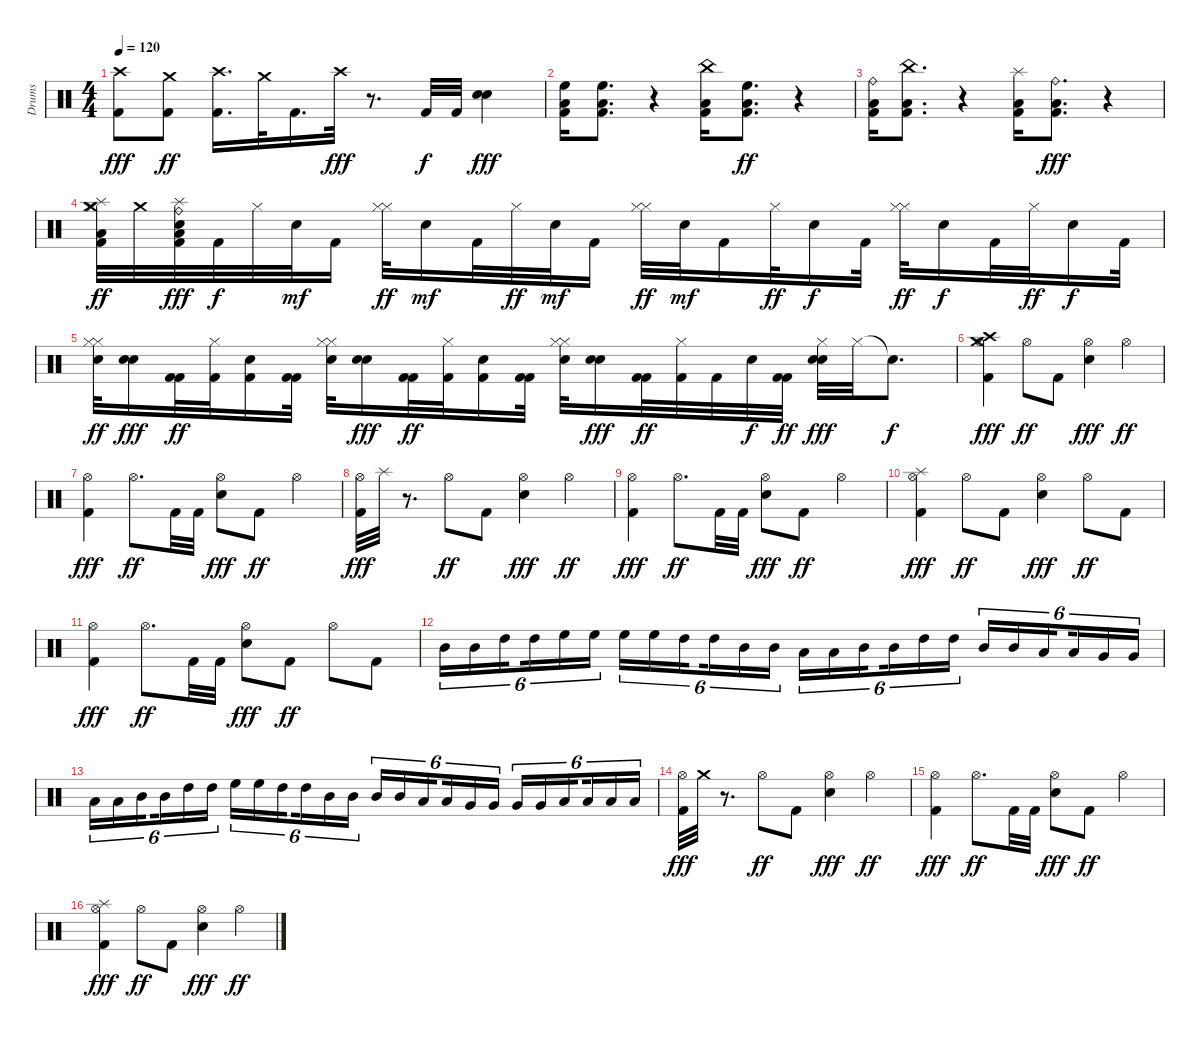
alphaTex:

\track ("Drums" "Drums") {instrument percussion}
\staff {score}
\articulation defaults
\ts (4 4)
\tempo 120
\clef neutral
\ks c
("Crash high (hit)" "Kick (hit) 2").8{dy fff} ("Crash medium (hit)" "Kick (hit) 2").8{dy ff} ("Crash high (hit)" "Kick (hit) 2").16{d} "Crash medium (hit)".32 "Kick (hit) 2".16{d} "Crash high (hit)".32{dy fff} r.8{d} "Kick (hit) 2".32{dy f} "Kick (hit) 2".32 ("Snare (hit) 2" "Electric Snare (hit)").4{dy fff volume 0} |
("Kick (hit) 2" "Low Floor Tom (hit)" "High Floor Tom (hit)").16{volume 16} ("Low Floor Tom (hit)" "Kick (hit) 2" "High Floor Tom (hit)").8{d} r.4 ("Kick (hit) 2" "Low Floor Tom (hit)" "China (hit)").16 ("Kick (hit) 2" "Low Floor Tom (hit)" "High Floor Tom (hit)").8{d dy ff} r.4 |
("Low Floor Tom (hit)" "Kick (hit) 2" "Ride (bell)").16 ("Kick (hit) 2" "Low Floor Tom (hit)" "China (hit)").8{d} r.4 ("Kick (hit) 2" "Low Floor Tom (hit)" "Splash (hit)").16 ("Ride (bell)" "Kick (hit) 2" "Low Floor Tom (hit)").8{d dy fff} r.4 |
("Crash medium (hit)" "Hi-Hat (closed)" "Kick (hit) 2" "Low Floor Tom (hit)" "Splash (hit)" "Hi-Hat (closed)").32{dy ff} "Crash medium (hit)".32 ("Hand Clap (hit)" "Kick (hit) 2" "Low Floor Tom (hit)" "Splash (hit)" "Ride (bell)").32{dy fff} "Kick (hit) 2".32{dy f} "Hi-Hat (closed)".32 "Hand Clap (hit)".32{dy mf volume 16} "Kick (hit) 2".16{volume 14} ("Hi-Hat (closed)" "Hi-Hat (closed)").32{dy ff volume 14} "Hand Clap (hit)".16{dy mf} "Kick (hit) 2".32 "Hi-Hat (closed)".32{dy ff} "Hand Clap (hit)".32{dy mf} "Kick (hit) 2".16 ("Hi-Hat (closed)" "Hi-Hat (closed)").32{dy ff} "Hand Clap (hit)".32{dy mf} "Kick (hit) 2".16 "Hi-Hat (closed)".32{dy ff} "Hand Clap (hit)".16{dy f} "Kick (hit) 2".32 ("Hi-Hat (closed)" "Hi-Hat (closed)").32{dy ff} "Hand Clap (hit)".16{dy f} "Kick (hit) 2".32 "Hi-Hat (closed)".32{dy ff} "Hand Clap (hit)".16{dy f} "Kick (hit) 2".32 |
("Hi-Hat (closed)" "Electric Snare (hit)" "Hi-Hat (closed)").32{dy ff} ("Hand Clap (hit)" "Electric Snare (hit)").16{dy fff volume 14} ("Kick (hit) 2" "Kick (hit) 2").32{dy ff} ("Kick (hit) 2" "Hi-Hat (closed)").32{volume 14} ("Hand Clap (hit)" "Kick (hit) 2").16{volume 14} ("Kick (hit) 2" "Kick (hit) 2").32{volume 14} ("Hi-Hat (closed)" "Electric Snare (hit)" "Hi-Hat (closed)").32{volume 15} ("Hand Clap (hit)" "Electric Snare (hit)").16{dy fff} ("Kick (hit) 2" "Kick (hit) 2").32{dy ff volume 15} ("Hi-Hat (closed)" "Kick (hit) 2").32{volume 15} ("Hand Clap (hit)" "Kick (hit) 2").16 ("Kick (hit) 2" "Kick (hit) 2").32{volume 15} ("Hi-Hat (closed)" "Electric Snare (hit)" "Hi-Hat (closed)").32 ("Electric Snare (hit)" "Hand Clap (hit)").16{dy fff volume 15} ("Kick (hit) 2" "Kick (hit) 2").32{dy ff} ("Kick (hit) 2" "Hi-Hat (closed)").32 "Kick (hit) 2".32{volume 16} "Hand Clap (hit)".32{dy f volume 16} ("Kick (hit) 2" "Kick (hit) 2").32{dy ff} ("Snare (hit) 2" "Hi-Hat (closed)" "Electric Snare (hit)").32{dy fff} "Hi-Hat (closed)".32{volume 16} "Snare (hit)"{t}.8{d dy f} |
("Crash high (hit)" "Hi-Hat (open)" "Kick (hit) 2" "Crash medium (hit)").4{dy fff} "Hi-Hat (open)".8{dy ff} "Kick (hit) 2".8 ("Hi-Hat (open)" "Snare (hit) 2").4{dy fff volume 16} "Hi-Hat (open)".4{dy ff} |
("Hi-Hat (open)" "Kick (hit) 2").4{dy fff} "Hi-Hat (open)".8{d dy ff} "Kick (hit) 2".32 "Kick (hit) 2".32 ("Hi-Hat (open)" "Snare (hit) 2").8{dy fff} "Kick (hit) 2".8{dy ff} "Hi-Hat (open)".4 |
("Hi-Hat (open)" "Kick (hit) 2").32{dy fff} "Splash (hit)".32 r.8{d} "Hi-Hat (open)".8{dy ff} "Kick (hit) 2".8 ("Hi-Hat (open)" "Snare (hit) 2").4{dy fff} "Hi-Hat (open)".4{dy ff} |
("Hi-Hat (open)" "Kick (hit) 2").4{dy fff} "Hi-Hat (open)".8{d dy ff} "Kick (hit) 2".32 "Kick (hit) 2".32 ("Hi-Hat (open)" "Snare (hit) 2").8{dy fff} "Kick (hit) 2".8{dy ff} "Hi-Hat (open)".4 |
("Splash (hit)" "Hi-Hat (open)" "Kick (hit) 2").4{dy fff} "Hi-Hat (open)".8{dy ff} "Kick (hit) 2".8 ("Hi-Hat (open)" "Snare (hit) 2").4{dy fff} "Hi-Hat (open)".8{dy ff} "Kick (hit) 2".8 |
("Hi-Hat (open)" "Kick (hit) 2").4{dy fff} "Hi-Hat (open)".8{d dy ff} "Kick (hit) 2".32 "Kick (hit) 2".32 ("Hi-Hat (open)" "Snare (hit) 2").8{dy fff} "Kick (hit) 2".8{dy ff} "Hi-Hat (open)".8 "Kick (hit) 2".8 |
"Mid Tom (hit)".16{tu (6 4)} "Mid Tom (hit)".16{tu (6 4)} "High Tom (hit)".16{tu (6 4) beam splitsecondary} "High Tom (hit)".16{tu (6 4)} "High Floor Tom (hit)".16{tu (6 4)} "High Floor Tom (hit)".16{tu (6 4)} "High Floor Tom (hit)".16{tu (6 4)} "High Floor Tom (hit)".16{tu (6 4)} "High Tom (hit)".16{tu (6 4) beam splitsecondary} "High Tom (hit)".16{tu (6 4)} "Mid Tom (hit)".16{tu (6 4)} "Mid Tom (hit)".16{tu (6 4)} "Low Tom (hit)".16{tu (6 4)} "Low Tom (hit)".16{tu (6 4)} "Mid Tom (hit)".16{tu (6 4) beam splitsecondary} "Mid Tom (hit)".16{tu (6 4)} "High Tom (hit)".16{tu (6 4)} "High Tom (hit)".16{tu (6 4)} "Mid Tom (hit)".16{tu (6 4)} "Mid Tom (hit)".16{tu (6 4)} "Low Tom (hit)".16{tu (6 4) beam splitsecondary} "Low Tom (hit)".16{tu (6 4)} "Very Low Tom (hit)".16{tu (6 4)} "Very Low Tom (hit)".16{tu (6 4)} |
"Low Tom (hit)".16{tu (6 4)} "Low Tom (hit)".16{tu (6 4)} "Mid Tom (hit)".16{tu (6 4) beam splitsecondary} "Mid Tom (hit)".16{tu (6 4)} "High Tom (hit)".16{tu (6 4)} "High Tom (hit)".16{tu (6 4)} "High Floor Tom (hit)".16{tu (6 4)} "High Floor Tom (hit)".16{tu (6 4)} "High Tom (hit)".16{tu (6 4) beam splitsecondary} "High Tom (hit)".16{tu (6 4)} "Mid Tom (hit)".16{tu (6 4)} "Mid Tom (hit)".16{tu (6 4)} "Mid Tom (hit)".16{tu (6 4)} "Mid Tom (hit)".16{tu (6 4)} "Low Tom (hit)".16{tu (6 4) beam splitsecondary} "Low Tom (hit)".16{tu (6 4)} "Very Low Tom (hit)".16{tu (6 4)} "Very Low Tom (hit)".16{tu (6 4)} "Very Low Tom (hit)".16{tu (6 4)} "Very Low Tom (hit)".16{tu (6 4)} "Low Floor Tom (hit)".16{tu (6 4) beam splitsecondary} "Low Floor Tom (hit)".16{tu (6 4)} "Low Floor Tom (hit)".16{tu (6 4)} "Low Floor Tom (hit)".16{tu (6 4)} |
("Hi-Hat (open)" "Kick (hit) 2").32{dy fff} "Crash medium (hit)".32 r.8{d} "Hi-Hat (open)".8{dy ff} "Kick (hit) 2".8 ("Hi-Hat (open)" "Snare (hit) 2").4{dy fff} "Hi-Hat (open)".4{dy ff} |
("Hi-Hat (open)" "Kick (hit) 2").4{dy fff} "Hi-Hat (open)".8{d dy ff} "Kick (hit) 2".32 "Kick (hit) 2".32 ("Hi-Hat (open)" "Snare (hit) 2").8{dy fff} "Kick (hit) 2".8{dy ff} "Hi-Hat (open)".4 |
("Splash (hit)" "Hi-Hat (open)" "Kick (hit) 2").4{dy fff} "Hi-Hat (open)".8{dy ff} "Kick (hit) 2".8 ("Hi-Hat (open)" "Snare (hit) 2").4{dy fff} "Hi-Hat (open)".4{dy ff}
